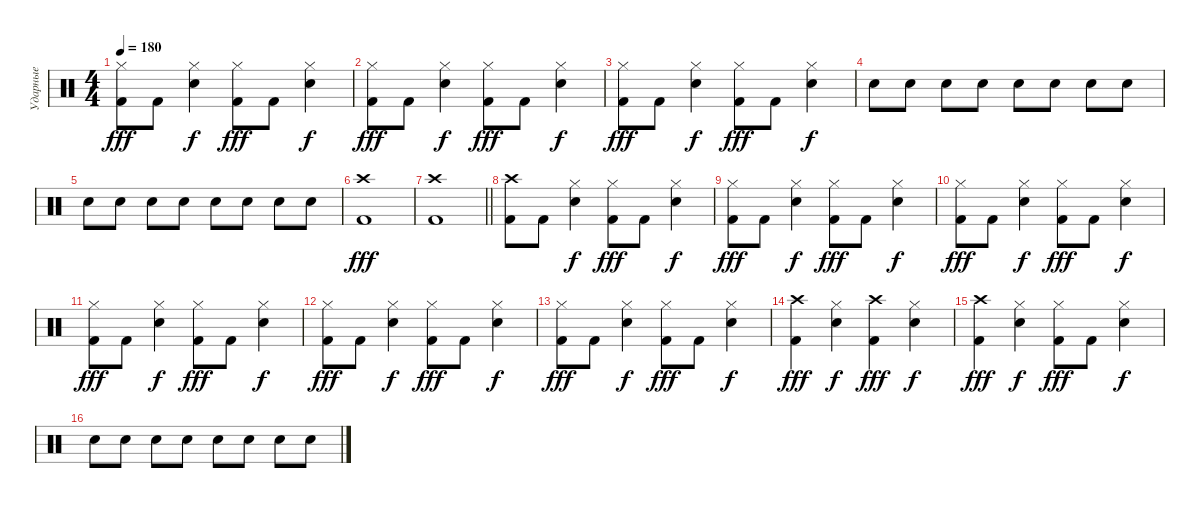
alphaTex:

\track ("Ударные" "Ударные") {instrument percussion}
\staff
\articulation defaults
\ts (4 4)
\tempo 180
\clef neutral
\ks c
("Kick (hit) 2" "Hi-Hat (closed)").8{dy fff} "Kick (hit) 2".8 ("Snare (hit) 2" "Hi-Hat (closed)").4{dy f} ("Kick (hit) 2" "Hi-Hat (closed)").8{dy fff} "Kick (hit) 2".8 ("Snare (hit) 2" "Hi-Hat (closed)").4{dy f} |
("Kick (hit) 2" "Hi-Hat (closed)").8{dy fff} "Kick (hit) 2".8 ("Snare (hit) 2" "Hi-Hat (closed)").4{dy f} ("Kick (hit) 2" "Hi-Hat (closed)").8{dy fff} "Kick (hit) 2".8 ("Snare (hit) 2" "Hi-Hat (closed)").4{dy f} |
("Kick (hit) 2" "Hi-Hat (closed)").8{dy fff} "Kick (hit) 2".8 ("Snare (hit) 2" "Hi-Hat (closed)").4{dy f} ("Kick (hit) 2" "Hi-Hat (closed)").8{dy fff} "Kick (hit) 2".8 ("Snare (hit) 2" "Hi-Hat (closed)").4{dy f} |
"Snare (hit) 2".8 "Snare (hit) 2".8 "Snare (hit) 2".8 "Snare (hit) 2".8 "Snare (hit) 2".8 "Snare (hit) 2".8 "Snare (hit) 2".8 "Snare (hit) 2".8 |
"Snare (hit) 2".8 "Snare (hit) 2".8 "Snare (hit) 2".8 "Snare (hit) 2".8 "Snare (hit) 2".8 "Snare (hit) 2".8 "Snare (hit) 2".8 "Snare (hit) 2".8 |
("Kick (hit) 2" "Crash high (hit)").1{dy fff} |
\barLineRight lightlight
("Kick (hit) 2" "Crash high (hit)").1 |
("Kick (hit) 2" "Crash high (hit)").8 "Kick (hit) 2".8 ("Snare (hit) 2" "Hi-Hat (closed)").4{dy f} ("Kick (hit) 2" "Hi-Hat (closed)").8{dy fff} "Kick (hit) 2".8 ("Snare (hit) 2" "Hi-Hat (closed)").4{dy f} |
("Kick (hit) 2" "Hi-Hat (closed)").8{dy fff} "Kick (hit) 2".8 ("Snare (hit) 2" "Hi-Hat (closed)").4{dy f} ("Kick (hit) 2" "Hi-Hat (closed)").8{dy fff} "Kick (hit) 2".8 ("Snare (hit) 2" "Hi-Hat (closed)").4{dy f} |
("Kick (hit) 2" "Hi-Hat (closed)").8{dy fff} "Kick (hit) 2".8 ("Snare (hit) 2" "Hi-Hat (closed)").4{dy f} ("Kick (hit) 2" "Hi-Hat (closed)").8{dy fff} "Kick (hit) 2".8 ("Snare (hit) 2" "Hi-Hat (closed)").4{dy f} |
("Kick (hit) 2" "Hi-Hat (closed)").8{dy fff} "Kick (hit) 2".8 ("Snare (hit) 2" "Hi-Hat (closed)").4{dy f} ("Kick (hit) 2" "Hi-Hat (closed)").8{dy fff} "Kick (hit) 2".8 ("Snare (hit) 2" "Hi-Hat (closed)").4{dy f} |
("Kick (hit) 2" "Hi-Hat (closed)").8{dy fff} "Kick (hit) 2".8 ("Snare (hit) 2" "Hi-Hat (closed)").4{dy f} ("Kick (hit) 2" "Hi-Hat (closed)").8{dy fff} "Kick (hit) 2".8 ("Snare (hit) 2" "Hi-Hat (closed)").4{dy f} |
("Kick (hit) 2" "Hi-Hat (closed)").8{dy fff} "Kick (hit) 2".8 ("Snare (hit) 2" "Hi-Hat (closed)").4{dy f} ("Kick (hit) 2" "Hi-Hat (closed)").8{dy fff} "Kick (hit) 2".8 ("Snare (hit) 2" "Hi-Hat (closed)").4{dy f} |
("Kick (hit) 2" "Crash high (hit)").4{dy fff} ("Snare (hit) 2" "Hi-Hat (closed)").4{dy f} ("Kick (hit) 2" "Crash high (hit)").4{dy fff} ("Snare (hit) 2" "Hi-Hat (closed)").4{dy f} |
("Kick (hit) 2" "Crash high (hit)").4{dy fff} ("Snare (hit) 2" "Hi-Hat (closed)").4{dy f} ("Kick (hit) 2" "Hi-Hat (closed)").8{dy fff} "Kick (hit) 2".8 ("Snare (hit) 2" "Hi-Hat (closed)").4{dy f} |
"Snare (hit) 2".8 "Snare (hit) 2".8 "Snare (hit) 2".8 "Snare (hit) 2".8 "Snare (hit) 2".8 "Snare (hit) 2".8 "Snare (hit) 2".8 "Snare (hit) 2".8
